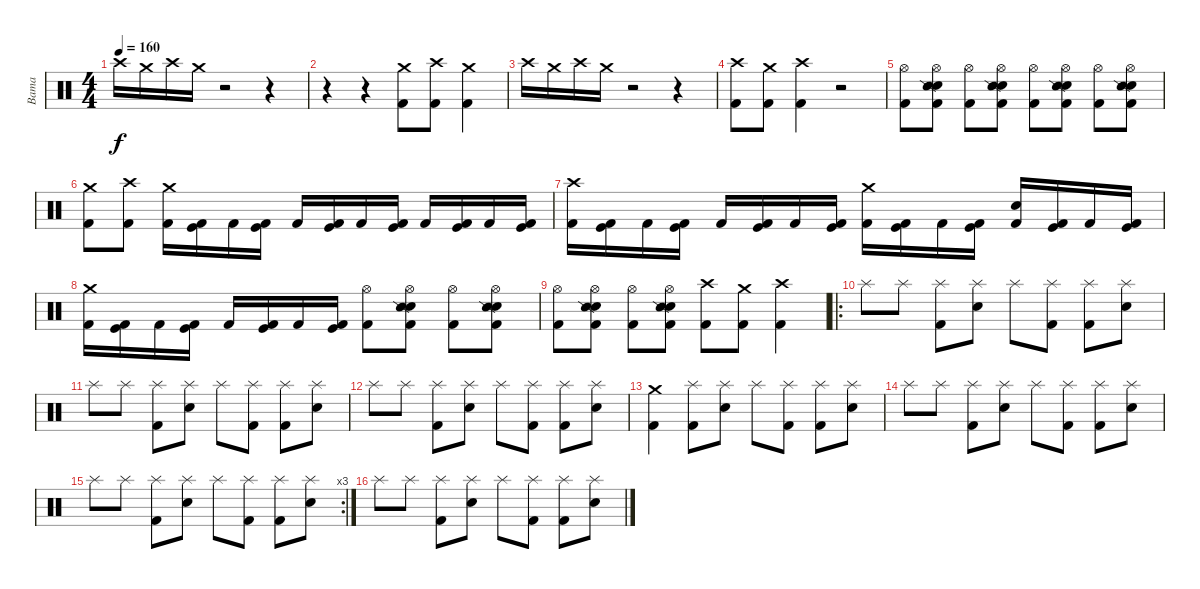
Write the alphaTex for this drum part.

\track ("Bama" "Bama") {instrument percussion}
\staff {score}
\articulation defaults
\ts (4 4)
\tempo 160
\clef neutral
\ks c "Crash high (hit)".16{dy f} "Crash medium (hit)".16 "Crash high (hit)".16 "Crash medium (hit)".16
r.2 r.4 |
r.4 r.4 ("Crash medium (hit)" "Kick (hit) 2").8 ("Crash high (hit)" "Kick (hit) 2").8 ("Crash medium (hit)" "Kick (hit) 2").4 |
"Crash high (hit)".16 "Crash medium (hit)".16 "Crash high (hit)".16 "Crash medium (hit)".16 r.2 r.4 |
("Crash high (hit)" "Kick (hit) 2").8 ("Crash medium (hit)" "Kick (hit) 2").8 ("Crash high (hit)" "Kick (hit) 2").4 r.2 |
("Hi-Hat (open)" "Kick (hit) 2").8 ("Hi-Hat (open)" "Electric Snare (hit)" "Snare (side stick) 2" "Kick (hit) 2").8 ("Hi-Hat (open)" "Kick (hit) 2").8 ("Hi-Hat (open)" "Electric Snare (hit)" "Snare (side stick) 2" "Kick (hit) 2").8 ("Hi-Hat (open)" "Kick (hit) 2").8 ("Hi-Hat (open)" "Electric Snare (hit)" "Snare (side stick) 2" "Kick (hit) 2").8 ("Hi-Hat (open)" "Kick (hit) 2").8 ("Hi-Hat (open)" "Electric Snare (hit)" "Snare (side stick) 2" "Kick (hit) 2").8 |
("Crash medium (hit)" "Kick (hit) 2").8 ("Crash high (hit)" "Kick (hit) 2").8 ("Crash medium (hit)" "Kick (hit) 2").16 ("Kick (hit)" "Kick (hit) 2").16 "Kick (hit) 2".16 ("Kick (hit)" "Kick (hit) 2").16 "Kick (hit) 2".16 ("Kick (hit)" "Kick (hit) 2").16 "Kick (hit) 2".16 ("Kick (hit)" "Kick (hit) 2").16 "Kick (hit) 2".16 ("Kick (hit)" "Kick (hit) 2").16 "Kick (hit) 2".16 ("Kick (hit)" "Kick (hit) 2").16 |
("Crash high (hit)" "Kick (hit) 2").16 ("Kick (hit)" "Kick (hit) 2").16 "Kick (hit) 2".16 ("Kick (hit)" "Kick (hit) 2").16 "Kick (hit) 2".16 ("Kick (hit)" "Kick (hit) 2").16 "Kick (hit) 2".16 ("Kick (hit)" "Kick (hit) 2").16 ("Crash medium (hit)" "Kick (hit) 2").16 ("Kick (hit)" "Kick (hit) 2").16 "Kick (hit) 2".16 ("Kick (hit)" "Kick (hit) 2").16 ("Snare (hit)" "Kick (hit) 2").16 ("Kick (hit)" "Kick (hit) 2").16 "Kick (hit) 2".16 ("Kick (hit)" "Kick (hit) 2").16 |
("Crash medium (hit)" "Kick (hit) 2").16 ("Kick (hit)" "Kick (hit) 2").16 "Kick (hit) 2".16 ("Kick (hit)" "Kick (hit) 2").16 "Kick (hit) 2".16 ("Kick (hit)" "Kick (hit) 2").16 "Kick (hit) 2".16 ("Kick (hit)" "Kick (hit) 2").16 ("Hi-Hat (open)" "Kick (hit) 2").8 ("Hi-Hat (open)" "Electric Snare (hit)" "Snare (side stick) 2" "Kick (hit) 2").8 ("Hi-Hat (open)" "Kick (hit) 2").8 ("Hi-Hat (open)" "Electric Snare (hit)" "Snare (side stick) 2" "Kick (hit) 2").8 |
("Hi-Hat (open)" "Kick (hit) 2").8 ("Hi-Hat (open)" "Electric Snare (hit)" "Snare (side stick) 2" "Kick (hit) 2").8 ("Hi-Hat (open)" "Kick (hit) 2").8 ("Hi-Hat (open)" "Electric Snare (hit)" "Snare (side stick) 2" "Kick (hit) 2").8 ("Crash high (hit)" "Kick (hit) 2").8 ("Crash medium (hit)" "Kick (hit) 2").8 ("Crash high (hit)" "Kick (hit) 2").4 |
\ro "Splash (hit)".8 "Splash (hit)".8
("Splash (hit)" "Kick (hit) 2").8 ("Splash (hit)" "Electric Snare (hit)").8 "Splash (hit)".8 ("Splash (hit)" "Kick (hit) 2").8 ("Splash (hit)" "Kick (hit) 2").8 ("Splash (hit)" "Electric Snare (hit)").8 |
"Splash (hit)".8 "Splash (hit)".8 ("Splash (hit)" "Kick (hit) 2").8 ("Splash (hit)" "Electric Snare (hit)").8 "Splash (hit)".8 ("Splash (hit)" "Kick (hit) 2").8 ("Splash (hit)" "Kick (hit) 2").8 ("Splash (hit)" "Electric Snare (hit)").8 |
"Splash (hit)".8 "Splash (hit)".8 ("Splash (hit)" "Kick (hit) 2").8 ("Splash (hit)" "Electric Snare (hit)").8 "Splash (hit)".8 ("Splash (hit)" "Kick (hit) 2").8 ("Splash (hit)" "Kick (hit) 2").8 ("Splash (hit)" "Electric Snare (hit)").8 |
("Crash medium (hit)" "Kick (hit) 2").4 ("Splash (hit)" "Kick (hit) 2").8 ("Splash (hit)" "Electric Snare (hit)").8 "Splash (hit)".8 ("Splash (hit)" "Kick (hit) 2").8 ("Splash (hit)" "Kick (hit) 2").8 ("Splash (hit)" "Electric Snare (hit)").8 |
"Splash (hit)".8 "Splash (hit)".8 ("Splash (hit)" "Kick (hit) 2").8 ("Splash (hit)" "Electric Snare (hit)").8 "Splash (hit)".8 ("Splash (hit)" "Kick (hit) 2").8 ("Splash (hit)" "Kick (hit) 2").8 ("Splash (hit)" "Electric Snare (hit)").8 |
\rc 3 "Splash (hit)".8 "Splash (hit)".8
("Splash (hit)" "Kick (hit) 2").8 ("Splash (hit)" "Electric Snare (hit)").8 "Splash (hit)".8 ("Splash (hit)" "Kick (hit) 2").8 ("Splash (hit)" "Kick (hit) 2").8 ("Splash (hit)" "Electric Snare (hit)").8 |
"Splash (hit)".8 "Splash (hit)".8 ("Splash (hit)" "Kick (hit) 2").8 ("Splash (hit)" "Electric Snare (hit)").8 "Splash (hit)".8 ("Splash (hit)" "Kick (hit) 2").8 ("Splash (hit)" "Kick (hit) 2").8 ("Splash (hit)" "Electric Snare (hit)").8
